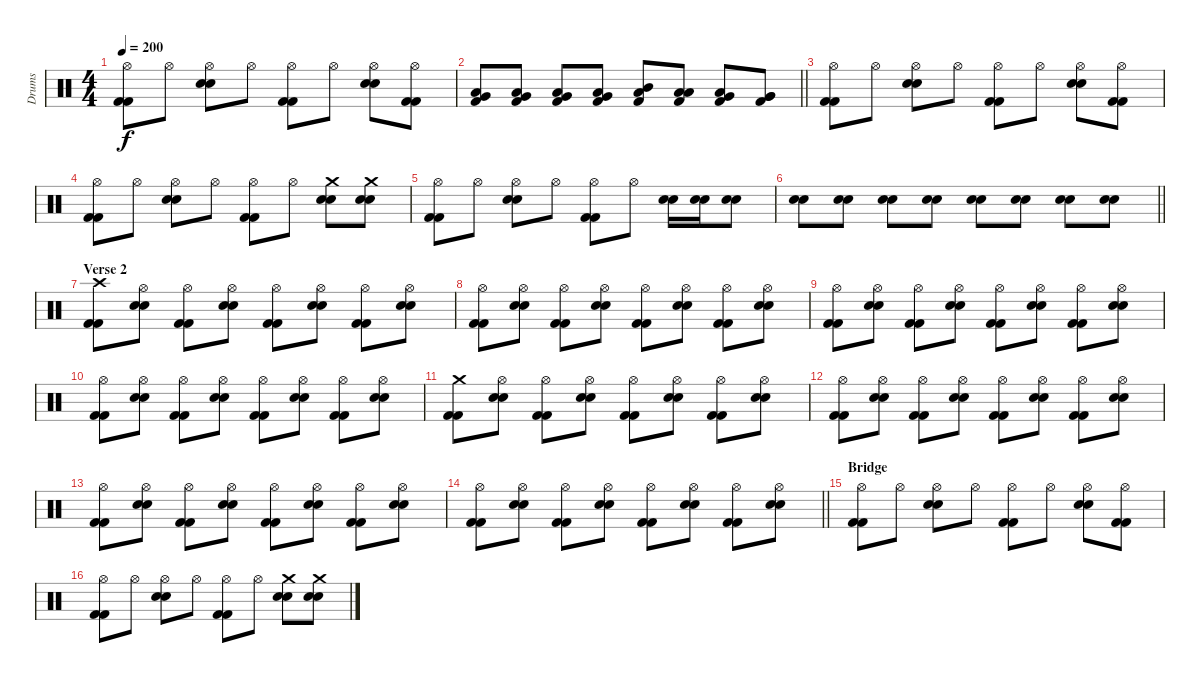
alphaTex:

\track ("Drums" "Drums") {instrument percussion}
\staff {score}
\articulation defaults
\ts (4 4)
\tempo 200
\clef neutral
\ks c
("Hi-Hat (open)" "Kick (hit) 2" "Kick (hit) 2").8{dy f} "Hi-Hat (open)".8 ("Hi-Hat (open)" "Snare (hit) 2" "Snare (hit) 2").8 "Hi-Hat (open)".8 ("Hi-Hat (open)" "Kick (hit) 2" "Kick (hit) 2").8 "Hi-Hat (open)".8 ("Hi-Hat (open)" "Snare (hit) 2" "Snare (hit) 2").8 ("Hi-Hat (open)" "Kick (hit) 2" "Kick (hit) 2").8 |
\barLineRight lightlight
("Low Tom (hit)" "Very Low Tom (hit)" "Kick (hit) 2").8 ("Low Tom (hit)" "Very Low Tom (hit)" "Kick (hit) 2").8 ("Low Tom (hit)" "Very Low Tom (hit)" "Kick (hit) 2").8 ("Low Tom (hit)" "Very Low Tom (hit)" "Kick (hit) 2").8 ("Mid Tom (hit)" "Low Tom (hit)" "Kick (hit) 2").8 ("Low Tom (hit)" "Low Tom (hit)" "Kick (hit) 2").8 ("Very Low Tom (hit)" "Low Tom (hit)" "Kick (hit) 2").8 ("Very Low Tom (hit)" "Very Low Tom (hit)" "Kick (hit) 2").8 |
("Hi-Hat (open)" "Kick (hit) 2" "Kick (hit) 2").8 "Hi-Hat (open)".8 ("Hi-Hat (open)" "Snare (hit) 2" "Snare (hit) 2").8 "Hi-Hat (open)".8 ("Hi-Hat (open)" "Kick (hit) 2" "Kick (hit) 2").8 "Hi-Hat (open)".8 ("Hi-Hat (open)" "Snare (hit) 2" "Snare (hit) 2").8 ("Hi-Hat (open)" "Kick (hit) 2" "Kick (hit) 2").8 |
("Hi-Hat (open)" "Kick (hit) 2" "Kick (hit) 2").8 "Hi-Hat (open)".8 ("Hi-Hat (open)" "Snare (hit) 2" "Snare (hit) 2").8 "Hi-Hat (open)".8 ("Hi-Hat (open)" "Kick (hit) 2" "Kick (hit) 2").8 "Hi-Hat (open)".8 ("Crash medium (hit)" "Snare (hit) 2" "Snare (hit) 2").8 ("Crash medium (hit)" "Snare (hit) 2" "Snare (hit) 2").8 |
("Hi-Hat (open)" "Kick (hit) 2" "Kick (hit) 2").8 "Hi-Hat (open)".8 ("Hi-Hat (open)" "Snare (hit) 2" "Snare (hit) 2").8 "Hi-Hat (open)".8 ("Hi-Hat (open)" "Kick (hit) 2" "Kick (hit) 2").8 "Hi-Hat (open)".8 ("Snare (hit) 2" "Snare (hit) 2").16 ("Snare (hit) 2" "Snare (hit) 2").16 ("Snare (hit) 2" "Snare (hit) 2").8 |
\barLineRight lightlight
("Snare (hit) 2" "Snare (hit) 2").8 ("Snare (hit) 2" "Snare (hit) 2").8 ("Snare (hit) 2" "Snare (hit) 2").8 ("Snare (hit) 2" "Snare (hit) 2").8 ("Snare (hit) 2" "Snare (hit) 2").8 ("Snare (hit) 2" "Snare (hit) 2").8 ("Snare (hit) 2" "Snare (hit) 2").8 ("Snare (hit) 2" "Snare (hit) 2").8 |
\section ("" "Verse 2")
("Crash high (hit)" "Kick (hit) 2" "Kick (hit) 2").8 ("Hi-Hat (open)" "Snare (hit) 2" "Snare (hit) 2").8 ("Hi-Hat (open)" "Kick (hit) 2" "Kick (hit) 2").8 ("Hi-Hat (open)" "Snare (hit) 2" "Snare (hit) 2").8 ("Hi-Hat (open)" "Kick (hit) 2" "Kick (hit) 2").8 ("Hi-Hat (open)" "Snare (hit) 2" "Snare (hit) 2").8 ("Hi-Hat (open)" "Kick (hit) 2" "Kick (hit) 2").8 ("Hi-Hat (open)" "Snare (hit) 2" "Snare (hit) 2").8 |
("Hi-Hat (open)" "Kick (hit) 2" "Kick (hit) 2").8 ("Hi-Hat (open)" "Snare (hit) 2" "Snare (hit) 2").8 ("Hi-Hat (open)" "Kick (hit) 2" "Kick (hit) 2").8 ("Hi-Hat (open)" "Snare (hit) 2" "Snare (hit) 2").8 ("Hi-Hat (open)" "Kick (hit) 2" "Kick (hit) 2").8 ("Hi-Hat (open)" "Snare (hit) 2" "Snare (hit) 2").8 ("Hi-Hat (open)" "Kick (hit) 2" "Kick (hit) 2").8 ("Hi-Hat (open)" "Snare (hit) 2" "Snare (hit) 2").8 |
("Hi-Hat (open)" "Kick (hit) 2" "Kick (hit) 2").8 ("Hi-Hat (open)" "Snare (hit) 2" "Snare (hit) 2").8 ("Hi-Hat (open)" "Kick (hit) 2" "Kick (hit) 2").8 ("Hi-Hat (open)" "Snare (hit) 2" "Snare (hit) 2").8 ("Hi-Hat (open)" "Kick (hit) 2" "Kick (hit) 2").8 ("Hi-Hat (open)" "Snare (hit) 2" "Snare (hit) 2").8 ("Hi-Hat (open)" "Kick (hit) 2" "Kick (hit) 2").8 ("Hi-Hat (open)" "Snare (hit) 2" "Snare (hit) 2").8 |
("Hi-Hat (open)" "Kick (hit) 2" "Kick (hit) 2").8 ("Hi-Hat (open)" "Snare (hit) 2" "Snare (hit) 2").8 ("Hi-Hat (open)" "Kick (hit) 2" "Kick (hit) 2").8 ("Hi-Hat (open)" "Snare (hit) 2" "Snare (hit) 2").8 ("Hi-Hat (open)" "Kick (hit) 2" "Kick (hit) 2").8 ("Hi-Hat (open)" "Snare (hit) 2" "Snare (hit) 2").8 ("Hi-Hat (open)" "Kick (hit) 2" "Kick (hit) 2").8 ("Hi-Hat (open)" "Snare (hit) 2" "Snare (hit) 2").8 |
("Crash medium (hit)" "Kick (hit) 2" "Kick (hit) 2").8 ("Hi-Hat (open)" "Snare (hit) 2" "Snare (hit) 2").8 ("Hi-Hat (open)" "Kick (hit) 2" "Kick (hit) 2").8 ("Hi-Hat (open)" "Snare (hit) 2" "Snare (hit) 2").8 ("Hi-Hat (open)" "Kick (hit) 2" "Kick (hit) 2").8 ("Hi-Hat (open)" "Snare (hit) 2" "Snare (hit) 2").8 ("Hi-Hat (open)" "Kick (hit) 2" "Kick (hit) 2").8 ("Hi-Hat (open)" "Snare (hit) 2" "Snare (hit) 2").8 |
("Hi-Hat (open)" "Kick (hit) 2" "Kick (hit) 2").8 ("Hi-Hat (open)" "Snare (hit) 2" "Snare (hit) 2").8 ("Hi-Hat (open)" "Kick (hit) 2" "Kick (hit) 2").8 ("Hi-Hat (open)" "Snare (hit) 2" "Snare (hit) 2").8 ("Hi-Hat (open)" "Kick (hit) 2" "Kick (hit) 2").8 ("Hi-Hat (open)" "Snare (hit) 2" "Snare (hit) 2").8 ("Hi-Hat (open)" "Kick (hit) 2" "Kick (hit) 2").8 ("Hi-Hat (open)" "Snare (hit) 2" "Snare (hit) 2").8 |
("Hi-Hat (open)" "Kick (hit) 2" "Kick (hit) 2").8 ("Hi-Hat (open)" "Snare (hit) 2" "Snare (hit) 2").8 ("Hi-Hat (open)" "Kick (hit) 2" "Kick (hit) 2").8 ("Hi-Hat (open)" "Snare (hit) 2" "Snare (hit) 2").8 ("Hi-Hat (open)" "Kick (hit) 2" "Kick (hit) 2").8 ("Hi-Hat (open)" "Snare (hit) 2" "Snare (hit) 2").8 ("Hi-Hat (open)" "Kick (hit) 2" "Kick (hit) 2").8 ("Hi-Hat (open)" "Snare (hit) 2" "Snare (hit) 2").8 |
\barLineRight lightlight
("Hi-Hat (open)" "Kick (hit) 2" "Kick (hit) 2").8 ("Hi-Hat (open)" "Snare (hit) 2" "Snare (hit) 2").8 ("Hi-Hat (open)" "Kick (hit) 2" "Kick (hit) 2").8 ("Hi-Hat (open)" "Snare (hit) 2" "Snare (hit) 2").8 ("Hi-Hat (open)" "Kick (hit) 2" "Kick (hit) 2").8 ("Hi-Hat (open)" "Snare (hit) 2" "Snare (hit) 2").8 ("Hi-Hat (open)" "Kick (hit) 2" "Kick (hit) 2").8 ("Hi-Hat (open)" "Snare (hit) 2" "Snare (hit) 2").8 |
\section ("" "Bridge")
("Hi-Hat (open)" "Kick (hit) 2" "Kick (hit) 2").8 "Hi-Hat (open)".8 ("Hi-Hat (open)" "Snare (hit) 2" "Snare (hit) 2").8 "Hi-Hat (open)".8 ("Hi-Hat (open)" "Kick (hit) 2" "Kick (hit) 2").8 "Hi-Hat (open)".8 ("Hi-Hat (open)" "Snare (hit) 2" "Snare (hit) 2").8 ("Hi-Hat (open)" "Kick (hit) 2" "Kick (hit) 2").8 |
("Hi-Hat (open)" "Kick (hit) 2" "Kick (hit) 2").8 "Hi-Hat (open)".8 ("Hi-Hat (open)" "Snare (hit) 2" "Snare (hit) 2").8 "Hi-Hat (open)".8 ("Hi-Hat (open)" "Kick (hit) 2" "Kick (hit) 2").8 "Hi-Hat (open)".8 ("Crash medium (hit)" "Snare (hit) 2" "Snare (hit) 2").8 ("Crash medium (hit)" "Snare (hit) 2" "Snare (hit) 2").8
